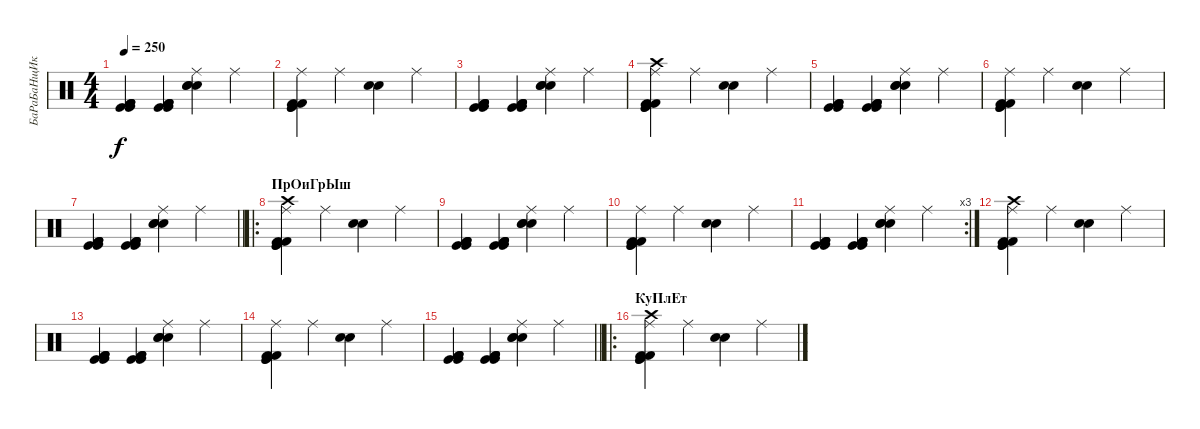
\track ("БаРаБаНщИк" "БаРаБаНщИк") {instrument percussion}
\staff {score}
\articulation defaults
\ts (4 4)
\tempo 250
\clef neutral
\ks c
("Kick (hit) 2" "Kick (hit)" "Kick (hit)" "Kick (hit) 2" "Kick (hit) 2").4{dy f} ("Kick (hit) 2" "Kick (hit) 2" "Kick (hit)" "Kick (hit)" "Kick (hit) 2").4 ("Ride (middle)" "Snare (hit) 2" "Snare (hit) 2" "Electric Snare (hit)").4 "Ride (middle)".4 |
("Ride (middle)" "Kick (hit)" "Kick (hit)" "Kick (hit) 2" "Kick (hit) 2").4 "Ride (middle)".4 ("Electric Snare (hit)" "Snare (hit) 2").4 "Ride (middle)".4 |
("Kick (hit) 2" "Kick (hit)" "Kick (hit)" "Kick (hit) 2" "Kick (hit) 2").4 ("Kick (hit) 2" "Kick (hit) 2" "Kick (hit)" "Kick (hit)" "Kick (hit) 2").4 ("Ride (middle)" "Snare (hit) 2" "Snare (hit) 2" "Electric Snare (hit)").4 "Ride (middle)".4 |
("Ride (middle)" "Kick (hit)" "Kick (hit)" "Kick (hit) 2" "Kick (hit) 2" "Crash high (hit)").4 "Ride (middle)".4 ("Electric Snare (hit)" "Snare (hit) 2").4 "Ride (middle)".4 |
("Kick (hit) 2" "Kick (hit)" "Kick (hit)" "Kick (hit) 2" "Kick (hit) 2").4 ("Kick (hit) 2" "Kick (hit) 2" "Kick (hit)" "Kick (hit)" "Kick (hit) 2").4 ("Ride (middle)" "Snare (hit) 2" "Snare (hit) 2" "Electric Snare (hit)").4 "Ride (middle)".4 |
("Ride (middle)" "Kick (hit)" "Kick (hit)" "Kick (hit) 2" "Kick (hit) 2").4 "Ride (middle)".4 ("Electric Snare (hit)" "Snare (hit) 2").4 "Ride (middle)".4 |
\barLineRight lightlight
("Kick (hit) 2" "Kick (hit)" "Kick (hit)" "Kick (hit) 2" "Kick (hit) 2").4 ("Kick (hit) 2" "Kick (hit) 2" "Kick (hit)" "Kick (hit)" "Kick (hit) 2").4 ("Ride (middle)" "Snare (hit) 2" "Snare (hit) 2" "Electric Snare (hit)").4 "Ride (middle)".4 |
\ro
\section ("" "ПрОиГрЫш")
("Ride (middle)" "Kick (hit)" "Kick (hit)" "Kick (hit) 2" "Kick (hit) 2" "Crash high (hit)").4 "Ride (middle)".4 ("Electric Snare (hit)" "Snare (hit) 2").4 "Ride (middle)".4 |
("Kick (hit) 2" "Kick (hit)" "Kick (hit)" "Kick (hit) 2" "Kick (hit) 2").4 ("Kick (hit) 2" "Kick (hit) 2" "Kick (hit)" "Kick (hit)" "Kick (hit) 2").4 ("Ride (middle)" "Snare (hit) 2" "Snare (hit) 2" "Electric Snare (hit)").4 "Ride (middle)".4 |
("Ride (middle)" "Kick (hit)" "Kick (hit)" "Kick (hit) 2" "Kick (hit) 2").4 "Ride (middle)".4 ("Electric Snare (hit)" "Snare (hit) 2").4 "Ride (middle)".4 |
\rc 3
("Kick (hit) 2" "Kick (hit)" "Kick (hit)" "Kick (hit) 2" "Kick (hit) 2").4 ("Kick (hit) 2" "Kick (hit) 2" "Kick (hit)" "Kick (hit)" "Kick (hit) 2").4 ("Ride (middle)" "Snare (hit) 2" "Snare (hit) 2" "Electric Snare (hit)").4 "Ride (middle)".4 |
("Ride (middle)" "Kick (hit)" "Kick (hit)" "Kick (hit) 2" "Kick (hit) 2" "Crash high (hit)").4 "Ride (middle)".4 ("Electric Snare (hit)" "Snare (hit) 2").4 "Ride (middle)".4 |
("Kick (hit) 2" "Kick (hit)" "Kick (hit)" "Kick (hit) 2" "Kick (hit) 2").4 ("Kick (hit) 2" "Kick (hit) 2" "Kick (hit)" "Kick (hit)" "Kick (hit) 2").4 ("Ride (middle)" "Snare (hit) 2" "Snare (hit) 2" "Electric Snare (hit)").4 "Ride (middle)".4 |
("Ride (middle)" "Kick (hit)" "Kick (hit)" "Kick (hit) 2" "Kick (hit) 2").4 "Ride (middle)".4 ("Electric Snare (hit)" "Snare (hit) 2").4 "Ride (middle)".4 |
\barLineRight lightlight
("Kick (hit) 2" "Kick (hit)" "Kick (hit)" "Kick (hit) 2" "Kick (hit) 2").4 ("Kick (hit) 2" "Kick (hit) 2" "Kick (hit)" "Kick (hit)" "Kick (hit) 2").4 ("Ride (middle)" "Snare (hit) 2" "Snare (hit) 2" "Electric Snare (hit)").4 "Ride (middle)".4 |
\ro
\section ("" "КуПлЕт")
("Ride (middle)" "Kick (hit)" "Kick (hit)" "Kick (hit) 2" "Kick (hit) 2" "Crash high (hit)").4 "Ride (middle)".4 ("Electric Snare (hit)" "Snare (hit) 2").4 "Ride (middle)".4
